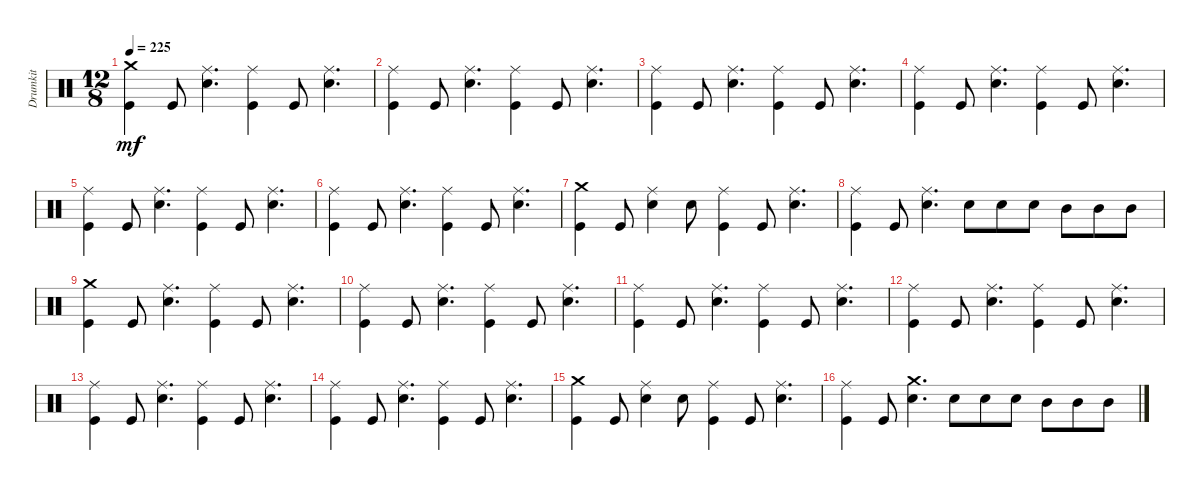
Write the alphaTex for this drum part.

\track ("Drumkit" "Drumkit") {instrument percussion}
\staff {score}
\articulation defaults
\ts (12 8)
\tempo 225
\clef neutral
\ks c
("Kick (hit)" "Crash medium (hit)").4{dy mf} "Kick (hit)".8 ("Snare (hit) 2" "Ride (middle)").4{d} ("Kick (hit)" "Ride (middle)").4 "Kick (hit)".8 ("Snare (hit) 2" "Ride (middle)").4{d} |
("Kick (hit)" "Ride (middle)").4 "Kick (hit)".8 ("Snare (hit) 2" "Ride (middle)").4{d} ("Kick (hit)" "Ride (middle)").4 "Kick (hit)".8 ("Snare (hit) 2" "Ride (middle)").4{d} |
("Kick (hit)" "Ride (middle)").4 "Kick (hit)".8 ("Snare (hit) 2" "Ride (middle)").4{d} ("Kick (hit)" "Ride (middle)").4 "Kick (hit)".8 ("Snare (hit) 2" "Ride (middle)").4{d} |
("Kick (hit)" "Ride (middle)").4 "Kick (hit)".8 ("Snare (hit) 2" "Ride (middle)").4{d} ("Kick (hit)" "Ride (middle)").4 "Kick (hit)".8 ("Snare (hit) 2" "Ride (middle)").4{d} |
("Kick (hit)" "Ride (middle)").4 "Kick (hit)".8 ("Snare (hit) 2" "Ride (middle)").4{d} ("Kick (hit)" "Ride (middle)").4 "Kick (hit)".8 ("Snare (hit) 2" "Ride (middle)").4{d} |
("Kick (hit)" "Ride (middle)").4 "Kick (hit)".8 ("Snare (hit) 2" "Ride (middle)").4{d} ("Kick (hit)" "Ride (middle)").4 "Kick (hit)".8 ("Snare (hit) 2" "Ride (middle)").4{d} |
("Kick (hit)" "Crash medium (hit)").4 "Kick (hit)".8 ("Snare (hit) 2" "Ride (middle)").4 "Snare (hit) 2".8 ("Kick (hit)" "Ride (middle)").4 "Kick (hit)".8 ("Snare (hit) 2" "Ride (middle)").4{d} |
("Kick (hit)" "Ride (middle)").4 "Kick (hit)".8 ("Snare (hit) 2" "Ride (middle)").4{d} "Snare (hit) 2".8 "Snare (hit) 2".8 "Snare (hit) 2".8 "Mid Tom (hit)".8 "Mid Tom (hit)".8 "Mid Tom (hit)".8 |
("Kick (hit)" "Crash medium (hit)").4 "Kick (hit)".8 ("Snare (hit) 2" "Ride (middle)").4{d} ("Kick (hit)" "Ride (middle)").4 "Kick (hit)".8 ("Snare (hit) 2" "Ride (middle)").4{d} |
("Kick (hit)" "Ride (middle)").4 "Kick (hit)".8 ("Snare (hit) 2" "Ride (middle)").4{d} ("Kick (hit)" "Ride (middle)").4 "Kick (hit)".8 ("Snare (hit) 2" "Ride (middle)").4{d} |
("Kick (hit)" "Ride (middle)").4 "Kick (hit)".8 ("Snare (hit) 2" "Ride (middle)").4{d} ("Kick (hit)" "Ride (middle)").4 "Kick (hit)".8 ("Snare (hit) 2" "Ride (middle)").4{d} |
("Kick (hit)" "Ride (middle)").4 "Kick (hit)".8 ("Snare (hit) 2" "Ride (middle)").4{d} ("Kick (hit)" "Ride (middle)").4 "Kick (hit)".8 ("Snare (hit) 2" "Ride (middle)").4{d} |
("Kick (hit)" "Ride (middle)").4 "Kick (hit)".8 ("Snare (hit) 2" "Ride (middle)").4{d} ("Kick (hit)" "Ride (middle)").4 "Kick (hit)".8 ("Snare (hit) 2" "Ride (middle)").4{d} |
("Kick (hit)" "Ride (middle)").4 "Kick (hit)".8 ("Snare (hit) 2" "Ride (middle)").4{d} ("Kick (hit)" "Ride (middle)").4 "Kick (hit)".8 ("Snare (hit) 2" "Ride (middle)").4{d} |
("Kick (hit)" "Crash medium (hit)").4 "Kick (hit)".8 ("Snare (hit) 2" "Ride (middle)").4 "Snare (hit) 2".8 ("Kick (hit)" "Ride (middle)").4 "Kick (hit)".8 ("Snare (hit) 2" "Ride (middle)").4{d} |
("Kick (hit)" "Ride (middle)").4 "Kick (hit)".8 ("Snare (hit) 2" "Crash medium (hit)").4{d} "Snare (hit) 2".8 "Snare (hit) 2".8 "Snare (hit) 2".8 "Mid Tom (hit)".8 "Mid Tom (hit)".8 "Mid Tom (hit)".8
